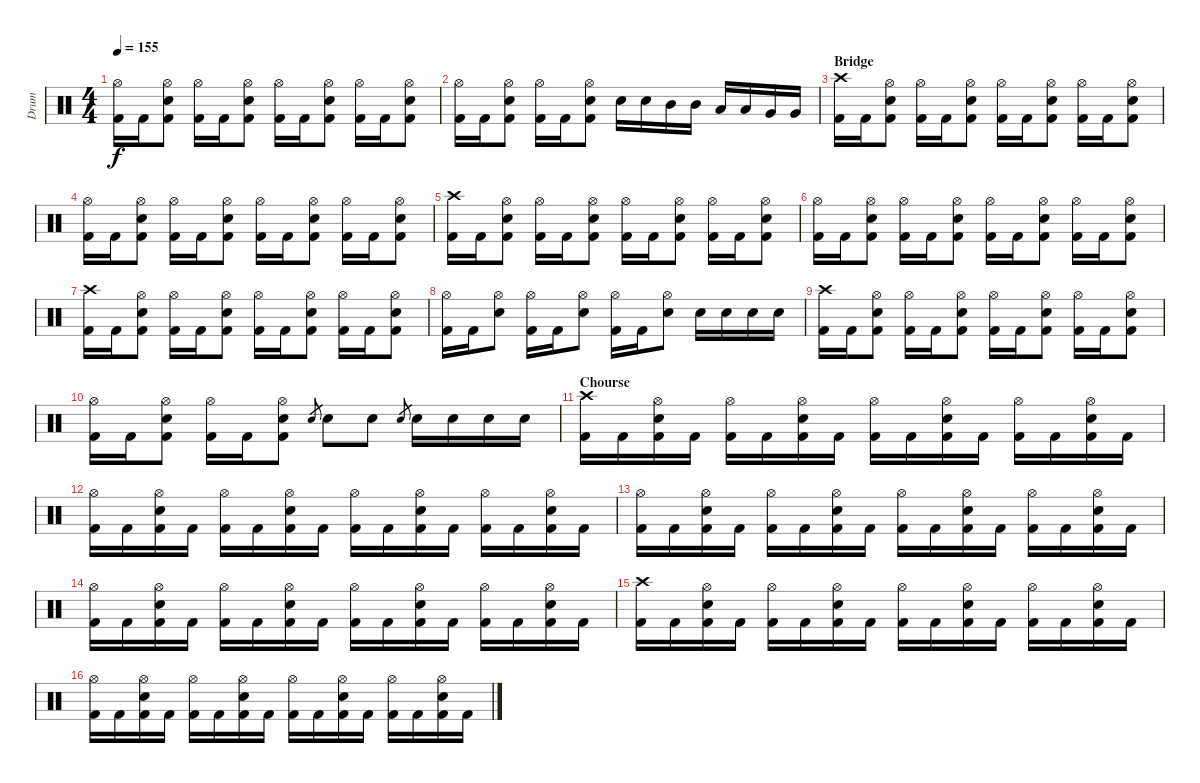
\track ("Drum" "Drum") {instrument percussion}
\staff {score}
\articulation defaults
\ts (4 4)
\tempo 155
\clef neutral
\ks c
("Hi-Hat (open)" "Kick (hit) 2").16{dy f} "Kick (hit) 2".16 ("Hi-Hat (open)" "Electric Snare (hit)" "Kick (hit) 2").8 ("Hi-Hat (open)" "Kick (hit) 2").16 "Kick (hit) 2".16 ("Hi-Hat (open)" "Electric Snare (hit)" "Kick (hit) 2").8 ("Hi-Hat (open)" "Kick (hit) 2").16 "Kick (hit) 2".16 ("Hi-Hat (open)" "Electric Snare (hit)" "Kick (hit) 2").8 ("Hi-Hat (open)" "Kick (hit) 2").16 "Kick (hit) 2".16 ("Hi-Hat (open)" "Electric Snare (hit)" "Kick (hit) 2").8 |
("Hi-Hat (open)" "Kick (hit) 2").16 "Kick (hit) 2".16 ("Hi-Hat (open)" "Electric Snare (hit)" "Kick (hit) 2").8 ("Hi-Hat (open)" "Kick (hit) 2").16 "Kick (hit) 2".16 ("Hi-Hat (open)" "Electric Snare (hit)" "Kick (hit) 2").8 "Electric Snare (hit)".16 "Electric Snare (hit)".16 "Mid Tom (hit)".16 "Mid Tom (hit)".16 "Low Tom (hit)".16 "Low Tom (hit)".16 "Very Low Tom (hit)".16 "Very Low Tom (hit)".16 |
\section ("" "Bridge")
("Crash high (hit)" "Kick (hit) 2").16 "Kick (hit) 2".16 ("Hi-Hat (open)" "Electric Snare (hit)" "Kick (hit) 2").8 ("Hi-Hat (open)" "Kick (hit) 2").16 "Kick (hit) 2".16 ("Hi-Hat (open)" "Electric Snare (hit)" "Kick (hit) 2").8 ("Hi-Hat (open)" "Kick (hit) 2").16 "Kick (hit) 2".16 ("Hi-Hat (open)" "Electric Snare (hit)" "Kick (hit) 2").8 ("Hi-Hat (open)" "Kick (hit) 2").16 "Kick (hit) 2".16 ("Hi-Hat (open)" "Electric Snare (hit)" "Kick (hit) 2").8 |
("Hi-Hat (open)" "Kick (hit) 2").16 "Kick (hit) 2".16 ("Hi-Hat (open)" "Electric Snare (hit)" "Kick (hit) 2").8 ("Hi-Hat (open)" "Kick (hit) 2").16 "Kick (hit) 2".16 ("Hi-Hat (open)" "Electric Snare (hit)" "Kick (hit) 2").8 ("Hi-Hat (open)" "Kick (hit) 2").16 "Kick (hit) 2".16 ("Hi-Hat (open)" "Electric Snare (hit)" "Kick (hit) 2").8 ("Hi-Hat (open)" "Kick (hit) 2").16 "Kick (hit) 2".16 ("Hi-Hat (open)" "Electric Snare (hit)" "Kick (hit) 2").8 |
("Crash high (hit)" "Kick (hit) 2").16 "Kick (hit) 2".16 ("Hi-Hat (open)" "Electric Snare (hit)" "Kick (hit) 2").8 ("Hi-Hat (open)" "Kick (hit) 2").16 "Kick (hit) 2".16 ("Hi-Hat (open)" "Electric Snare (hit)" "Kick (hit) 2").8 ("Hi-Hat (open)" "Kick (hit) 2").16 "Kick (hit) 2".16 ("Hi-Hat (open)" "Electric Snare (hit)" "Kick (hit) 2").8 ("Hi-Hat (open)" "Kick (hit) 2").16 "Kick (hit) 2".16 ("Hi-Hat (open)" "Electric Snare (hit)" "Kick (hit) 2").8 |
("Hi-Hat (open)" "Kick (hit) 2").16 "Kick (hit) 2".16 ("Hi-Hat (open)" "Electric Snare (hit)" "Kick (hit) 2").8 ("Hi-Hat (open)" "Kick (hit) 2").16 "Kick (hit) 2".16 ("Hi-Hat (open)" "Electric Snare (hit)" "Kick (hit) 2").8 ("Hi-Hat (open)" "Kick (hit) 2").16 "Kick (hit) 2".16 ("Hi-Hat (open)" "Electric Snare (hit)" "Kick (hit) 2").8 ("Hi-Hat (open)" "Kick (hit) 2").16 "Kick (hit) 2".16 ("Hi-Hat (open)" "Electric Snare (hit)" "Kick (hit) 2").8 |
("Crash high (hit)" "Kick (hit) 2").16 "Kick (hit) 2".16 ("Hi-Hat (open)" "Electric Snare (hit)" "Kick (hit) 2").8 ("Hi-Hat (open)" "Kick (hit) 2").16 "Kick (hit) 2".16 ("Hi-Hat (open)" "Electric Snare (hit)" "Kick (hit) 2").8 ("Hi-Hat (open)" "Kick (hit) 2").16 "Kick (hit) 2".16 ("Hi-Hat (open)" "Electric Snare (hit)" "Kick (hit) 2").8 ("Hi-Hat (open)" "Kick (hit) 2").16 "Kick (hit) 2".16 ("Hi-Hat (open)" "Electric Snare (hit)" "Kick (hit) 2").8 |
("Hi-Hat (open)" "Kick (hit) 2").16 "Kick (hit) 2".16 ("Hi-Hat (open)" "Electric Snare (hit)").8 ("Hi-Hat (open)" "Kick (hit) 2").16 "Kick (hit) 2".16 ("Hi-Hat (open)" "Electric Snare (hit)").8 ("Hi-Hat (open)" "Kick (hit) 2").16 "Kick (hit) 2".16 ("Hi-Hat (open)" "Electric Snare (hit)").8 "Electric Snare (hit)".16 "Electric Snare (hit)".16 "Electric Snare (hit)".16 "Electric Snare (hit)".16 |
("Crash high (hit)" "Kick (hit) 2").16 "Kick (hit) 2".16 ("Hi-Hat (open)" "Electric Snare (hit)" "Kick (hit) 2").8 ("Hi-Hat (open)" "Kick (hit) 2").16 "Kick (hit) 2".16 ("Hi-Hat (open)" "Electric Snare (hit)" "Kick (hit) 2").8 ("Hi-Hat (open)" "Kick (hit) 2").16 "Kick (hit) 2".16 ("Hi-Hat (open)" "Electric Snare (hit)" "Kick (hit) 2").8 ("Hi-Hat (open)" "Kick (hit) 2").16 "Kick (hit) 2".16 ("Hi-Hat (open)" "Electric Snare (hit)" "Kick (hit) 2").8 |
("Hi-Hat (open)" "Kick (hit) 2").16 "Kick (hit) 2".16 ("Hi-Hat (open)" "Electric Snare (hit)" "Kick (hit) 2").8 ("Hi-Hat (open)" "Kick (hit) 2").16 "Kick (hit) 2".16 ("Hi-Hat (open)" "Electric Snare (hit)" "Kick (hit) 2").8 "Electric Snare (hit)".8{gr} "Electric Snare (hit)".8 "Electric Snare (hit)".8 "Electric Snare (hit)".8{gr} "Electric Snare (hit)".16 "Electric Snare (hit)".16 "Electric Snare (hit)".16 "Electric Snare (hit)".16 |
\section ("" "Chourse")
("Crash high (hit)" "Kick (hit) 2").16 "Kick (hit) 2".16 ("Hi-Hat (open)" "Electric Snare (hit)" "Kick (hit) 2").16 "Kick (hit) 2".16 ("Hi-Hat (open)" "Kick (hit) 2").16 "Kick (hit) 2".16 ("Hi-Hat (open)" "Electric Snare (hit)" "Kick (hit) 2").16 "Kick (hit) 2".16 ("Hi-Hat (open)" "Kick (hit) 2").16 "Kick (hit) 2".16 ("Hi-Hat (open)" "Electric Snare (hit)" "Kick (hit) 2").16 "Kick (hit) 2".16 ("Hi-Hat (open)" "Kick (hit) 2").16 "Kick (hit) 2".16 ("Hi-Hat (open)" "Electric Snare (hit)" "Kick (hit) 2").16 "Kick (hit) 2".16 |
("Hi-Hat (open)" "Kick (hit) 2").16 "Kick (hit) 2".16 ("Hi-Hat (open)" "Electric Snare (hit)" "Kick (hit) 2").16 "Kick (hit) 2".16 ("Hi-Hat (open)" "Kick (hit) 2").16 "Kick (hit) 2".16 ("Hi-Hat (open)" "Electric Snare (hit)" "Kick (hit) 2").16 "Kick (hit) 2".16 ("Hi-Hat (open)" "Kick (hit) 2").16 "Kick (hit) 2".16 ("Hi-Hat (open)" "Electric Snare (hit)" "Kick (hit) 2").16 "Kick (hit) 2".16 ("Hi-Hat (open)" "Kick (hit) 2").16 "Kick (hit) 2".16 ("Hi-Hat (open)" "Electric Snare (hit)" "Kick (hit) 2").16 "Kick (hit) 2".16 |
("Hi-Hat (open)" "Kick (hit) 2").16 "Kick (hit) 2".16 ("Hi-Hat (open)" "Electric Snare (hit)" "Kick (hit) 2").16 "Kick (hit) 2".16 ("Hi-Hat (open)" "Kick (hit) 2").16 "Kick (hit) 2".16 ("Hi-Hat (open)" "Electric Snare (hit)" "Kick (hit) 2").16 "Kick (hit) 2".16 ("Hi-Hat (open)" "Kick (hit) 2").16 "Kick (hit) 2".16 ("Hi-Hat (open)" "Electric Snare (hit)" "Kick (hit) 2").16 "Kick (hit) 2".16 ("Hi-Hat (open)" "Kick (hit) 2").16 "Kick (hit) 2".16 ("Hi-Hat (open)" "Electric Snare (hit)" "Kick (hit) 2").16 "Kick (hit) 2".16 |
("Hi-Hat (open)" "Kick (hit) 2").16 "Kick (hit) 2".16 ("Hi-Hat (open)" "Electric Snare (hit)" "Kick (hit) 2").16 "Kick (hit) 2".16 ("Hi-Hat (open)" "Kick (hit) 2").16 "Kick (hit) 2".16 ("Hi-Hat (open)" "Electric Snare (hit)" "Kick (hit) 2").16 "Kick (hit) 2".16 ("Hi-Hat (open)" "Kick (hit) 2").16 "Kick (hit) 2".16 ("Hi-Hat (open)" "Electric Snare (hit)" "Kick (hit) 2").16 "Kick (hit) 2".16 ("Hi-Hat (open)" "Kick (hit) 2").16 "Kick (hit) 2".16 ("Hi-Hat (open)" "Electric Snare (hit)" "Kick (hit) 2").16 "Kick (hit) 2".16 |
("Crash high (hit)" "Kick (hit) 2").16 "Kick (hit) 2".16 ("Hi-Hat (open)" "Electric Snare (hit)" "Kick (hit) 2").16 "Kick (hit) 2".16 ("Hi-Hat (open)" "Kick (hit) 2").16 "Kick (hit) 2".16 ("Hi-Hat (open)" "Electric Snare (hit)" "Kick (hit) 2").16 "Kick (hit) 2".16 ("Hi-Hat (open)" "Kick (hit) 2").16 "Kick (hit) 2".16 ("Hi-Hat (open)" "Electric Snare (hit)" "Kick (hit) 2").16 "Kick (hit) 2".16 ("Hi-Hat (open)" "Kick (hit) 2").16 "Kick (hit) 2".16 ("Hi-Hat (open)" "Electric Snare (hit)" "Kick (hit) 2").16 "Kick (hit) 2".16 |
("Hi-Hat (open)" "Kick (hit) 2").16 "Kick (hit) 2".16 ("Hi-Hat (open)" "Electric Snare (hit)" "Kick (hit) 2").16 "Kick (hit) 2".16 ("Hi-Hat (open)" "Kick (hit) 2").16 "Kick (hit) 2".16 ("Hi-Hat (open)" "Electric Snare (hit)" "Kick (hit) 2").16 "Kick (hit) 2".16 ("Hi-Hat (open)" "Kick (hit) 2").16 "Kick (hit) 2".16 ("Hi-Hat (open)" "Electric Snare (hit)" "Kick (hit) 2").16 "Kick (hit) 2".16 ("Hi-Hat (open)" "Kick (hit) 2").16 "Kick (hit) 2".16 ("Hi-Hat (open)" "Electric Snare (hit)" "Kick (hit) 2").16 "Kick (hit) 2".16
